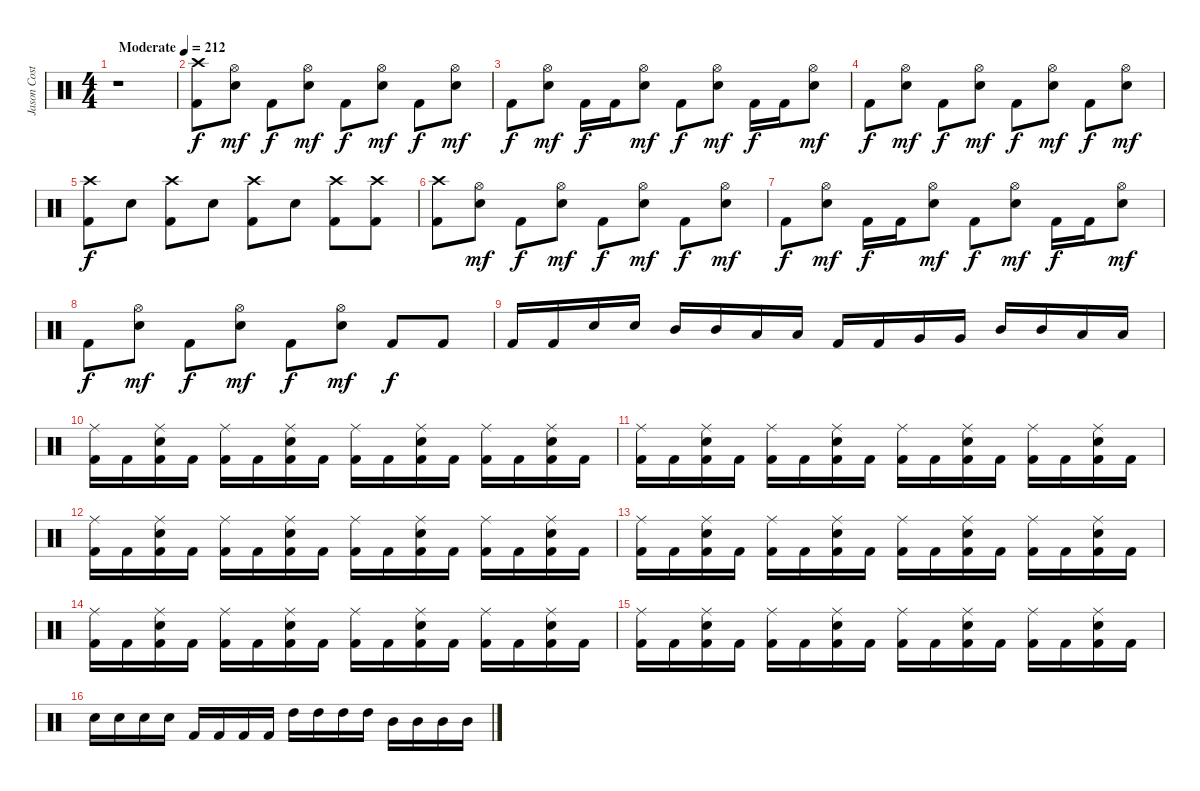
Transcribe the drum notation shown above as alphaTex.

\track ("Jason Costa" "Jason Cost") {instrument percussion}
\staff {score}
\articulation defaults
\ts (4 4)
\tempo (212 "Moderate")
\clef neutral
\ks c
r.1{dy f} |
("Crash high (hit)" "Kick (hit) 2").8 ("Hi-Hat (open)" "Electric Snare (hit)").8{dy mf} "Kick (hit) 2".8{dy f} ("Hi-Hat (open)" "Electric Snare (hit)").8{dy mf} "Kick (hit) 2".8{dy f} ("Hi-Hat (open)" "Electric Snare (hit)").8{dy mf} "Kick (hit) 2".8{dy f} ("Hi-Hat (open)" "Electric Snare (hit)").8{dy mf} |
"Kick (hit) 2".8{dy f} ("Hi-Hat (open)" "Electric Snare (hit)").8{dy mf} "Kick (hit) 2".16{dy f} "Kick (hit) 2".16 ("Hi-Hat (open)" "Electric Snare (hit)").8{dy mf} "Kick (hit) 2".8{dy f} ("Hi-Hat (open)" "Electric Snare (hit)").8{dy mf} "Kick (hit) 2".16{dy f} "Kick (hit) 2".16 ("Hi-Hat (open)" "Electric Snare (hit)").8{dy mf} |
"Kick (hit) 2".8{dy f} ("Hi-Hat (open)" "Electric Snare (hit)").8{dy mf} "Kick (hit) 2".8{dy f} ("Hi-Hat (open)" "Electric Snare (hit)").8{dy mf} "Kick (hit) 2".8{dy f} ("Hi-Hat (open)" "Electric Snare (hit)").8{dy mf} "Kick (hit) 2".8{dy f} ("Hi-Hat (open)" "Electric Snare (hit)").8{dy mf} |
("Crash high (hit)" "Kick (hit) 2").8{dy f} "Electric Snare (hit)".8 ("Crash high (hit)" "Kick (hit) 2").8 "Electric Snare (hit)".8 ("Crash high (hit)" "Kick (hit) 2").8 "Electric Snare (hit)".8 ("Crash high (hit)" "Kick (hit) 2").8 ("Crash high (hit)" "Kick (hit) 2").8 |
("Crash high (hit)" "Kick (hit) 2").8 ("Hi-Hat (open)" "Electric Snare (hit)").8{dy mf} "Kick (hit) 2".8{dy f} ("Hi-Hat (open)" "Electric Snare (hit)").8{dy mf} "Kick (hit) 2".8{dy f} ("Hi-Hat (open)" "Electric Snare (hit)").8{dy mf} "Kick (hit) 2".8{dy f} ("Hi-Hat (open)" "Electric Snare (hit)").8{dy mf} |
"Kick (hit) 2".8{dy f} ("Hi-Hat (open)" "Electric Snare (hit)").8{dy mf} "Kick (hit) 2".16{dy f} "Kick (hit) 2".16 ("Hi-Hat (open)" "Electric Snare (hit)").8{dy mf} "Kick (hit) 2".8{dy f} ("Hi-Hat (open)" "Electric Snare (hit)").8{dy mf} "Kick (hit) 2".16{dy f} "Kick (hit) 2".16 ("Hi-Hat (open)" "Electric Snare (hit)").8{dy mf} |
"Kick (hit) 2".8{dy f} ("Hi-Hat (open)" "Electric Snare (hit)").8{dy mf} "Kick (hit) 2".8{dy f} ("Hi-Hat (open)" "Electric Snare (hit)").8{dy mf} "Kick (hit) 2".8{dy f} ("Hi-Hat (open)" "Electric Snare (hit)").8{dy mf} "Kick (hit) 2".8{dy f} "Kick (hit) 2".8 |
"Kick (hit) 2".16 "Kick (hit) 2".16 "Electric Snare (hit)".16 "Electric Snare (hit)".16 "Mid Tom (hit)".16 "Mid Tom (hit)".16 "Low Tom (hit)".16 "Low Tom (hit)".16 "Kick (hit) 2".16 "Kick (hit) 2".16 "Very Low Tom (hit)".16 "Very Low Tom (hit)".16 "Mid Tom (hit)".16 "Mid Tom (hit)".16 "Low Tom (hit)".16 "Low Tom (hit)".16 |
("Ride (middle)" "Kick (hit) 2").16 "Kick (hit) 2".16 ("Ride (middle)" "Electric Snare (hit)" "Kick (hit) 2").16 "Kick (hit) 2".16 ("Ride (middle)" "Kick (hit) 2").16 "Kick (hit) 2".16 ("Ride (middle)" "Electric Snare (hit)" "Kick (hit) 2").16 "Kick (hit) 2".16 ("Ride (middle)" "Kick (hit) 2").16 "Kick (hit) 2".16 ("Ride (middle)" "Electric Snare (hit)" "Kick (hit) 2").16 "Kick (hit) 2".16 ("Ride (middle)" "Kick (hit) 2").16 "Kick (hit) 2".16 ("Ride (middle)" "Electric Snare (hit)" "Kick (hit) 2").16 "Kick (hit) 2".16 |
("Ride (middle)" "Kick (hit) 2").16 "Kick (hit) 2".16 ("Ride (middle)" "Electric Snare (hit)" "Kick (hit) 2").16 "Kick (hit) 2".16 ("Ride (middle)" "Kick (hit) 2").16 "Kick (hit) 2".16 ("Ride (middle)" "Electric Snare (hit)" "Kick (hit) 2").16 "Kick (hit) 2".16 ("Ride (middle)" "Kick (hit) 2").16 "Kick (hit) 2".16 ("Ride (middle)" "Electric Snare (hit)" "Kick (hit) 2").16 "Kick (hit) 2".16 ("Ride (middle)" "Kick (hit) 2").16 "Kick (hit) 2".16 ("Ride (middle)" "Electric Snare (hit)" "Kick (hit) 2").16 "Kick (hit) 2".16 |
("Ride (middle)" "Kick (hit) 2").16 "Kick (hit) 2".16 ("Ride (middle)" "Electric Snare (hit)" "Kick (hit) 2").16 "Kick (hit) 2".16 ("Ride (middle)" "Kick (hit) 2").16 "Kick (hit) 2".16 ("Ride (middle)" "Electric Snare (hit)" "Kick (hit) 2").16 "Kick (hit) 2".16 ("Ride (middle)" "Kick (hit) 2").16 "Kick (hit) 2".16 ("Ride (middle)" "Electric Snare (hit)" "Kick (hit) 2").16 "Kick (hit) 2".16 ("Ride (middle)" "Kick (hit) 2").16 "Kick (hit) 2".16 ("Ride (middle)" "Electric Snare (hit)" "Kick (hit) 2").16 "Kick (hit) 2".16 |
("Ride (middle)" "Kick (hit) 2").16 "Kick (hit) 2".16 ("Ride (middle)" "Electric Snare (hit)" "Kick (hit) 2").16 "Kick (hit) 2".16 ("Ride (middle)" "Kick (hit) 2").16 "Kick (hit) 2".16 ("Ride (middle)" "Electric Snare (hit)" "Kick (hit) 2").16 "Kick (hit) 2".16 ("Ride (middle)" "Kick (hit) 2").16 "Kick (hit) 2".16 ("Ride (middle)" "Electric Snare (hit)" "Kick (hit) 2").16 "Kick (hit) 2".16 ("Ride (middle)" "Kick (hit) 2").16 "Kick (hit) 2".16 ("Ride (middle)" "Electric Snare (hit)" "Kick (hit) 2").16 "Kick (hit) 2".16 |
("Ride (middle)" "Kick (hit) 2").16 "Kick (hit) 2".16 ("Ride (middle)" "Electric Snare (hit)" "Kick (hit) 2").16 "Kick (hit) 2".16 ("Ride (middle)" "Kick (hit) 2").16 "Kick (hit) 2".16 ("Ride (middle)" "Electric Snare (hit)" "Kick (hit) 2").16 "Kick (hit) 2".16 ("Ride (middle)" "Kick (hit) 2").16 "Kick (hit) 2".16 ("Ride (middle)" "Electric Snare (hit)" "Kick (hit) 2").16 "Kick (hit) 2".16 ("Ride (middle)" "Kick (hit) 2").16 "Kick (hit) 2".16 ("Ride (middle)" "Electric Snare (hit)" "Kick (hit) 2").16 "Kick (hit) 2".16 |
("Ride (middle)" "Kick (hit) 2").16 "Kick (hit) 2".16 ("Ride (middle)" "Electric Snare (hit)" "Kick (hit) 2").16 "Kick (hit) 2".16 ("Ride (middle)" "Kick (hit) 2").16 "Kick (hit) 2".16 ("Ride (middle)" "Electric Snare (hit)" "Kick (hit) 2").16 "Kick (hit) 2".16 ("Ride (middle)" "Kick (hit) 2").16 "Kick (hit) 2".16 ("Ride (middle)" "Electric Snare (hit)" "Kick (hit) 2").16 "Kick (hit) 2".16 ("Ride (middle)" "Kick (hit) 2").16 "Kick (hit) 2".16 ("Ride (middle)" "Electric Snare (hit)" "Kick (hit) 2").16 "Kick (hit) 2".16 |
"Electric Snare (hit)".16 "Electric Snare (hit)".16 "Electric Snare (hit)".16 "Electric Snare (hit)".16 "Kick (hit) 2".16 "Kick (hit) 2".16 "Kick (hit) 2".16 "Kick (hit) 2".16 "High Tom (hit)".16 "High Tom (hit)".16 "High Tom (hit)".16 "High Tom (hit)".16 "Mid Tom (hit)".16 "Mid Tom (hit)".16 "Mid Tom (hit)".16 "Mid Tom (hit)".16
